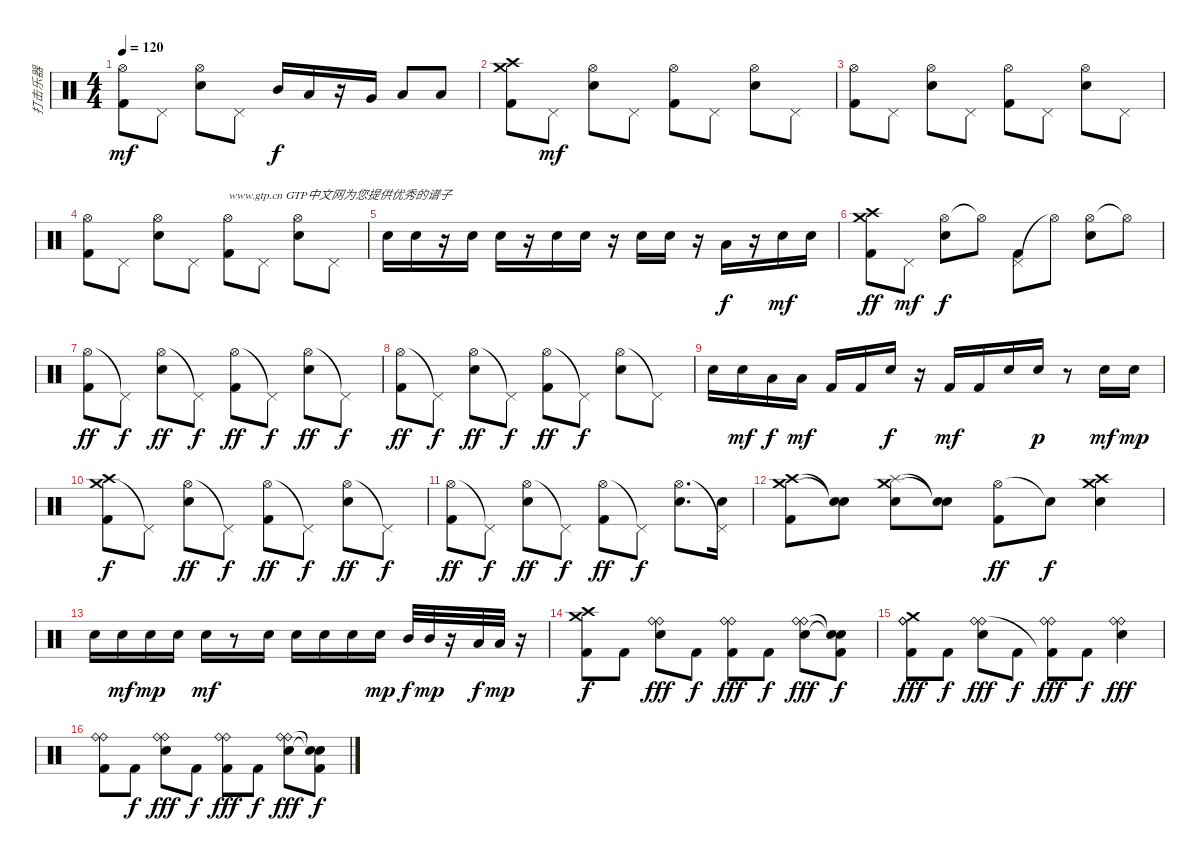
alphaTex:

\track ("打击乐器" "打击乐器") {instrument percussion}
\staff {score}
\articulation defaults
\ts (4 4)
\tempo 120
\clef neutral
\ks c
("Hi-Hat (open)" "Kick (hit) 2").8{dy mf} "Pedal Hi-Hat (hit)".8 ("Hi-Hat (open)" "Metronome (bell)").8 "Pedal Hi-Hat (hit)".8 "Mid Tom (hit)".16{dy f} "Low Tom (hit)".16 r.16 "Very Low Tom (hit)".16 "Low Floor Tom (hit)".8 "Low Floor Tom (hit)".8 |
("Crash high (hit)" "Crash medium (hit)" "Kick (hit) 2").8 "Pedal Hi-Hat (hit)".8{dy mf} ("Hi-Hat (open)" "Metronome (bell)").8 "Pedal Hi-Hat (hit)".8 ("Hi-Hat (open)" "Kick (hit) 2").8 "Pedal Hi-Hat (hit)".8 ("Hi-Hat (open)" "Metronome (bell)").8 "Pedal Hi-Hat (hit)".8 |
("Hi-Hat (open)" "Kick (hit) 2").8 "Pedal Hi-Hat (hit)".8 ("Hi-Hat (open)" "Metronome (bell)").8 "Pedal Hi-Hat (hit)".8 ("Hi-Hat (open)" "Kick (hit) 2").8 "Pedal Hi-Hat (hit)".8 ("Hi-Hat (open)" "Metronome (bell)").8 "Pedal Hi-Hat (hit)".8 |
("Hi-Hat (open)" "Kick (hit) 2").8 "Pedal Hi-Hat (hit)".8 ("Hi-Hat (open)" "Metronome (bell)").8 "Pedal Hi-Hat (hit)".8 ("Hi-Hat (open)" "Kick (hit) 2").8{txt "www.gtp.cn GTP中文网为您提供优秀的谱子"} "Pedal Hi-Hat (hit)".8 ("Hi-Hat (open)" "Metronome (bell)").8 "Pedal Hi-Hat (hit)".8 |
"Metronome (bell)".16 "Metronome (bell)".16 r.16 "Metronome (bell)".16 "Metronome (bell)".16 r.16 "Metronome (bell)".16 "Metronome (bell)".16 r.16 "Metronome (bell)".16 "Metronome (bell)".16 r.16 "Low Floor Tom (hit)".16{dy f} r.16 "Metronome (bell)".16{dy mf} "Metronome (bell)".16 |
("Crash high (hit)" "Crash medium (hit)" "Kick (hit) 2").8{dy ff} "Pedal Hi-Hat (hit)".8{dy mf} ("Hi-Hat (open)" "Metronome (bell)").8{dy f} "Hi-Hat (open)"{t}.8 ("Pedal Hi-Hat (hit)" "Kick (hit) 2").8 "Hi-Hat (open)"{t}.8 ("Hi-Hat (open)" "Metronome (bell)").8 "Hi-Hat (open)"{t}.8 |
("Hi-Hat (open)" "Kick (hit) 2").8{dy ff} "Pedal Hi-Hat (hit)"{t}.8{dy f} ("Hi-Hat (open)" "Metronome (bell)").8{dy ff} "Pedal Hi-Hat (hit)"{t}.8{dy f} ("Hi-Hat (open)" "Kick (hit) 2").8{dy ff} "Pedal Hi-Hat (hit)"{t}.8{dy f} ("Hi-Hat (open)" "Metronome (bell)").8{dy ff} "Pedal Hi-Hat (hit)"{t}.8{dy f} |
("Hi-Hat (open)" "Kick (hit) 2").8{dy ff} "Pedal Hi-Hat (hit)"{t}.8{dy f} ("Hi-Hat (open)" "Metronome (bell)").8{dy ff} "Pedal Hi-Hat (hit)"{t}.8{dy f} ("Hi-Hat (open)" "Kick (hit) 2").8{dy ff} "Pedal Hi-Hat (hit)"{t}.8{dy f} ("Hi-Hat (open)" "Metronome (bell)").8 "Pedal Hi-Hat (hit)"{t}.8 |
"Metronome (bell)".16 "Metronome (bell)".16{dy mf} "Low Floor Tom (hit)".16{dy f} "Low Floor Tom (hit)".16{dy mf} "Kick (hit) 2".16 "Kick (hit) 2".16 "Metronome (bell)".16{dy f} r.16 "Kick (hit) 2".16{dy mf} "Kick (hit) 2".16 "Metronome (bell)".16 "Metronome (bell)".16{dy p} r.8 "Metronome (bell)".16{dy mf} "Metronome (bell)".16{dy mp} |
("Crash medium (hit)" "Crash high (hit)" "Kick (hit) 2").8{dy f} "Pedal Hi-Hat (hit)"{t}.8 ("Hi-Hat (open)" "Metronome (bell)").8{dy ff} "Pedal Hi-Hat (hit)"{t}.8{dy f} ("Hi-Hat (open)" "Kick (hit) 2").8{dy ff} "Pedal Hi-Hat (hit)"{t}.8{dy f} ("Hi-Hat (open)" "Metronome (bell)").8{dy ff} "Pedal Hi-Hat (hit)"{t}.8{dy f} |
("Hi-Hat (open)" "Kick (hit) 2").8{dy ff} "Pedal Hi-Hat (hit)"{t}.8{dy f} ("Hi-Hat (open)" "Metronome (bell)").8{dy ff} "Pedal Hi-Hat (hit)"{t}.8{dy f} ("Hi-Hat (open)" "Kick (hit) 2").8{dy ff} "Pedal Hi-Hat (hit)"{t}.8{dy f} ("Hi-Hat (open)" "Metronome (bell)").8{d} ("Pedal Hi-Hat (hit)"{t} "Metronome (bell)").16 |
("Crash medium (hit)" "Crash high (hit)" "Kick (hit) 2").8 ("Snare (hit)"{t} "Snare (hit)"{t}).8 ("Crash medium (hit)" "Splash (hit)" "Metronome (bell)").8 ("Snare (hit)"{t} "Snare (hit)"{t}).8 ("Hi-Hat (open)" "Kick (hit) 2").8{dy ff} "Snare (hit)"{t}.8{dy f} ("Crash high (hit)" "Crash medium (hit)" "Metronome (bell)").4 |
"Metronome (bell)".16 "Metronome (bell)".16{dy mf} "Metronome (bell)".16{dy mp} "Metronome (bell)".16 "Metronome (bell)".16{dy mf} r.8 "Metronome (bell)".16 "Metronome (bell)".16 "Metronome (bell)".16 "Metronome (bell)".16 "Metronome (bell)".16{dy mp} "Mid Tom (hit)".32{dy f} "Mid Tom (hit)".32{dy mp} r.16 "Low Tom (hit)".32{dy f} "Low Tom (hit)".32{dy mp} r.16 |
("Crash high (hit)" "Crash medium (hit)" "Kick (hit) 2").8{dy f} "Kick (hit) 2".8 ("Ride (bell)" "Metronome (bell)" "Ride (bell)").8{dy fff} "Kick (hit) 2".8{dy f} ("Ride (bell)" "Ride (bell)" "Kick (hit) 2").8{dy fff} "Kick (hit) 2".8{dy f} ("Ride (bell)" "Metronome (bell)" "Ride (bell)").8{dy fff} ("Snare (hit)"{t} "Snare (hit)"{t} "Kick (hit) 2").8{dy f} |
("Ride (bell)" "Crash medium (hit)" "Ride (bell)" "Kick (hit) 2").8{dy fff} "Kick (hit) 2".8{dy f} ("Ride (bell)" "Metronome (bell)" "Ride (bell)").8{dy fff} "Kick (hit) 2".8{dy f} ("Ride (bell)" "Ride (bell)" "Kick (hit) 2"{t}).8{dy fff} "Kick (hit) 2".8{dy f} ("Ride (bell)" "Metronome (bell)" "Ride (bell)").4{dy fff} |
("Ride (bell)" "Ride (bell)" "Kick (hit) 2").8 "Kick (hit) 2".8{dy f} ("Ride (bell)" "Metronome (bell)" "Ride (bell)").8{dy fff} "Kick (hit) 2".8{dy f} ("Ride (bell)" "Ride (bell)" "Kick (hit) 2").8{dy fff} "Kick (hit) 2".8{dy f} ("Ride (bell)" "Metronome (bell)" "Ride (bell)").8{dy fff} ("Snare (hit)"{t} "Snare (hit)"{t} "Kick (hit) 2").8{dy f}
